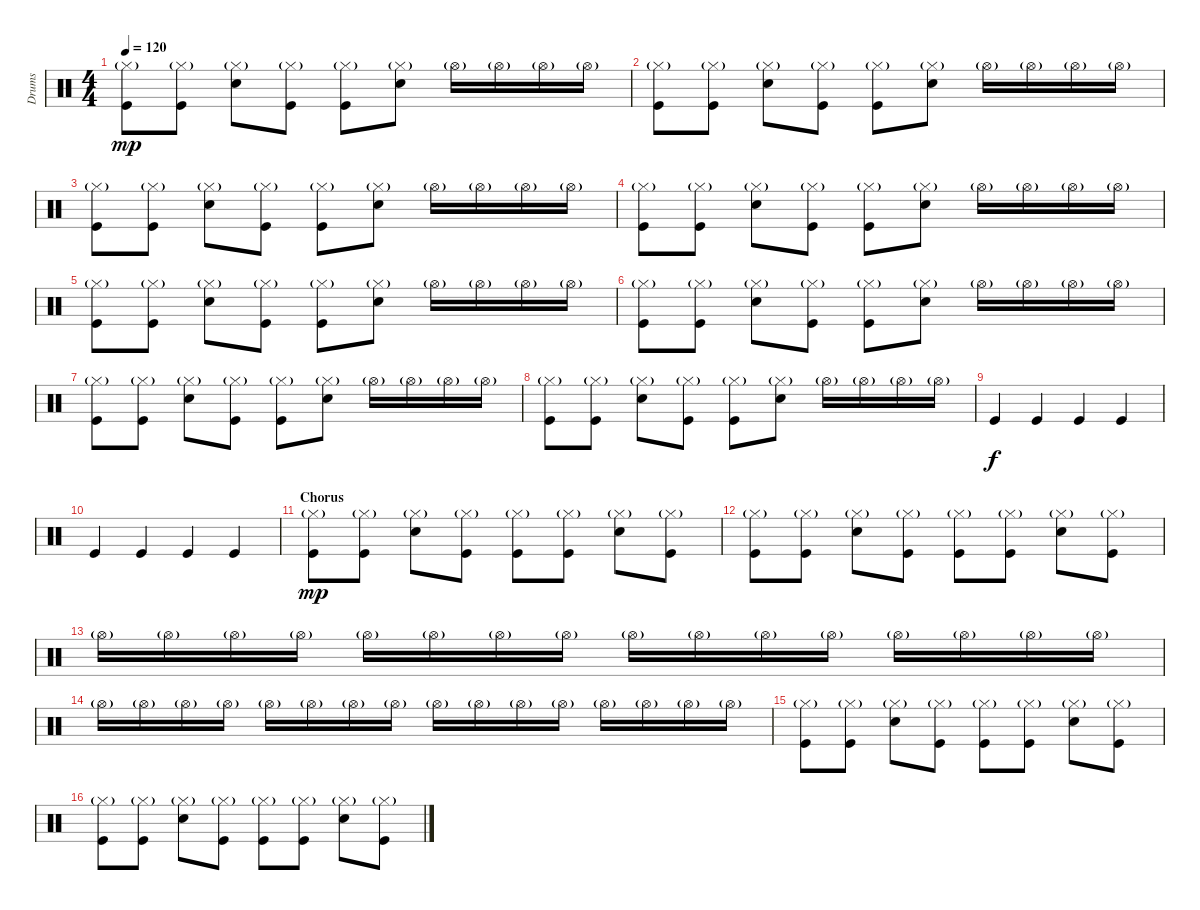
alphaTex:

\track ("Drums" "Drums") {instrument percussion}
\staff {score}
\articulation defaults
\ts (4 4)
\tempo 120
\clef neutral
\ks c
("Hi-Hat (closed)"{g} "Kick (hit)").8{dy mp} ("Hi-Hat (closed)"{g} "Kick (hit)").8 ("Hi-Hat (closed)"{g} "Electric Snare (hit)").8 ("Hi-Hat (closed)"{g} "Kick (hit)").8 ("Hi-Hat (closed)"{g} "Kick (hit)").8 ("Hi-Hat (closed)"{g} "Electric Snare (hit)").8 "Hi-Hat (open)"{g}.16 "Hi-Hat (open)"{g}.16 "Hi-Hat (open)"{g}.16 "Hi-Hat (open)"{g}.16 |
("Hi-Hat (closed)"{g} "Kick (hit)").8 ("Hi-Hat (closed)"{g} "Kick (hit)").8 ("Hi-Hat (closed)"{g} "Electric Snare (hit)").8 ("Hi-Hat (closed)"{g} "Kick (hit)").8 ("Hi-Hat (closed)"{g} "Kick (hit)").8 ("Hi-Hat (closed)"{g} "Electric Snare (hit)").8 "Hi-Hat (open)"{g}.16 "Hi-Hat (open)"{g}.16 "Hi-Hat (open)"{g}.16 "Hi-Hat (open)"{g}.16 |
("Hi-Hat (closed)"{g} "Kick (hit)").8 ("Hi-Hat (closed)"{g} "Kick (hit)").8 ("Hi-Hat (closed)"{g} "Electric Snare (hit)").8 ("Hi-Hat (closed)"{g} "Kick (hit)").8 ("Hi-Hat (closed)"{g} "Kick (hit)").8 ("Hi-Hat (closed)"{g} "Electric Snare (hit)").8 "Hi-Hat (open)"{g}.16 "Hi-Hat (open)"{g}.16 "Hi-Hat (open)"{g}.16 "Hi-Hat (open)"{g}.16 |
("Hi-Hat (closed)"{g} "Kick (hit)").8 ("Hi-Hat (closed)"{g} "Kick (hit)").8 ("Hi-Hat (closed)"{g} "Electric Snare (hit)").8 ("Hi-Hat (closed)"{g} "Kick (hit)").8 ("Hi-Hat (closed)"{g} "Kick (hit)").8 ("Hi-Hat (closed)"{g} "Electric Snare (hit)").8 "Hi-Hat (open)"{g}.16 "Hi-Hat (open)"{g}.16 "Hi-Hat (open)"{g}.16 "Hi-Hat (open)"{g}.16 |
("Hi-Hat (closed)"{g} "Kick (hit)").8 ("Hi-Hat (closed)"{g} "Kick (hit)").8 ("Hi-Hat (closed)"{g} "Electric Snare (hit)").8 ("Hi-Hat (closed)"{g} "Kick (hit)").8 ("Hi-Hat (closed)"{g} "Kick (hit)").8 ("Hi-Hat (closed)"{g} "Electric Snare (hit)").8 "Hi-Hat (open)"{g}.16 "Hi-Hat (open)"{g}.16 "Hi-Hat (open)"{g}.16 "Hi-Hat (open)"{g}.16 |
("Hi-Hat (closed)"{g} "Kick (hit)").8 ("Hi-Hat (closed)"{g} "Kick (hit)").8 ("Hi-Hat (closed)"{g} "Electric Snare (hit)").8 ("Hi-Hat (closed)"{g} "Kick (hit)").8 ("Hi-Hat (closed)"{g} "Kick (hit)").8 ("Hi-Hat (closed)"{g} "Electric Snare (hit)").8 "Hi-Hat (open)"{g}.16 "Hi-Hat (open)"{g}.16 "Hi-Hat (open)"{g}.16 "Hi-Hat (open)"{g}.16 |
("Hi-Hat (closed)"{g} "Kick (hit)").8 ("Hi-Hat (closed)"{g} "Kick (hit)").8 ("Hi-Hat (closed)"{g} "Electric Snare (hit)").8 ("Hi-Hat (closed)"{g} "Kick (hit)").8 ("Hi-Hat (closed)"{g} "Kick (hit)").8 ("Hi-Hat (closed)"{g} "Electric Snare (hit)").8 "Hi-Hat (open)"{g}.16 "Hi-Hat (open)"{g}.16 "Hi-Hat (open)"{g}.16 "Hi-Hat (open)"{g}.16 |
("Hi-Hat (closed)"{g} "Kick (hit)").8 ("Hi-Hat (closed)"{g} "Kick (hit)").8 ("Hi-Hat (closed)"{g} "Electric Snare (hit)").8 ("Hi-Hat (closed)"{g} "Kick (hit)").8 ("Hi-Hat (closed)"{g} "Kick (hit)").8 ("Hi-Hat (closed)"{g} "Electric Snare (hit)").8 "Hi-Hat (open)"{g}.16 "Hi-Hat (open)"{g}.16 "Hi-Hat (open)"{g}.16 "Hi-Hat (open)"{g}.16 |
"Kick (hit)".4{dy f} "Kick (hit)".4 "Kick (hit)".4 "Kick (hit)".4 |
"Kick (hit)".4 "Kick (hit)".4 "Kick (hit)".4 "Kick (hit)".4 |
\section ("" "Chorus")
("Hi-Hat (closed)"{g} "Kick (hit)").8{dy mp} ("Hi-Hat (closed)"{g} "Kick (hit)").8 ("Hi-Hat (closed)"{g} "Electric Snare (hit)").8 ("Hi-Hat (closed)"{g} "Kick (hit)").8 ("Hi-Hat (closed)"{g} "Kick (hit)").8 ("Hi-Hat (closed)"{g} "Kick (hit)").8 ("Hi-Hat (closed)"{g} "Electric Snare (hit)").8 ("Hi-Hat (closed)"{g} "Kick (hit)").8 |
("Hi-Hat (closed)"{g} "Kick (hit)").8 ("Hi-Hat (closed)"{g} "Kick (hit)").8 ("Hi-Hat (closed)"{g} "Electric Snare (hit)").8 ("Hi-Hat (closed)"{g} "Kick (hit)").8 ("Hi-Hat (closed)"{g} "Kick (hit)").8 ("Hi-Hat (closed)"{g} "Kick (hit)").8 ("Hi-Hat (closed)"{g} "Electric Snare (hit)").8 ("Hi-Hat (closed)"{g} "Kick (hit)").8 |
"Hi-Hat (open)"{g}.16 "Hi-Hat (open)"{g}.16 "Hi-Hat (open)"{g}.16 "Hi-Hat (open)"{g}.16 "Hi-Hat (open)"{g}.16 "Hi-Hat (open)"{g}.16 "Hi-Hat (open)"{g}.16 "Hi-Hat (open)"{g}.16 "Hi-Hat (open)"{g}.16 "Hi-Hat (open)"{g}.16 "Hi-Hat (open)"{g}.16 "Hi-Hat (open)"{g}.16 "Hi-Hat (open)"{g}.16 "Hi-Hat (open)"{g}.16 "Hi-Hat (open)"{g}.16 "Hi-Hat (open)"{g}.16 |
"Hi-Hat (open)"{g}.16 "Hi-Hat (open)"{g}.16 "Hi-Hat (open)"{g}.16 "Hi-Hat (open)"{g}.16 "Hi-Hat (open)"{g}.16 "Hi-Hat (open)"{g}.16 "Hi-Hat (open)"{g}.16 "Hi-Hat (open)"{g}.16 "Hi-Hat (open)"{g}.16 "Hi-Hat (open)"{g}.16 "Hi-Hat (open)"{g}.16 "Hi-Hat (open)"{g}.16 "Hi-Hat (open)"{g}.16 "Hi-Hat (open)"{g}.16 "Hi-Hat (open)"{g}.16 "Hi-Hat (open)"{g}.16 |
("Hi-Hat (closed)"{g} "Kick (hit)").8 ("Hi-Hat (closed)"{g} "Kick (hit)").8 ("Hi-Hat (closed)"{g} "Electric Snare (hit)").8 ("Hi-Hat (closed)"{g} "Kick (hit)").8 ("Hi-Hat (closed)"{g} "Kick (hit)").8 ("Hi-Hat (closed)"{g} "Kick (hit)").8 ("Hi-Hat (closed)"{g} "Electric Snare (hit)").8 ("Hi-Hat (closed)"{g} "Kick (hit)").8 |
("Hi-Hat (closed)"{g} "Kick (hit)").8 ("Hi-Hat (closed)"{g} "Kick (hit)").8 ("Hi-Hat (closed)"{g} "Electric Snare (hit)").8 ("Hi-Hat (closed)"{g} "Kick (hit)").8 ("Hi-Hat (closed)"{g} "Kick (hit)").8 ("Hi-Hat (closed)"{g} "Kick (hit)").8 ("Hi-Hat (closed)"{g} "Electric Snare (hit)").8 ("Hi-Hat (closed)"{g} "Kick (hit)").8
